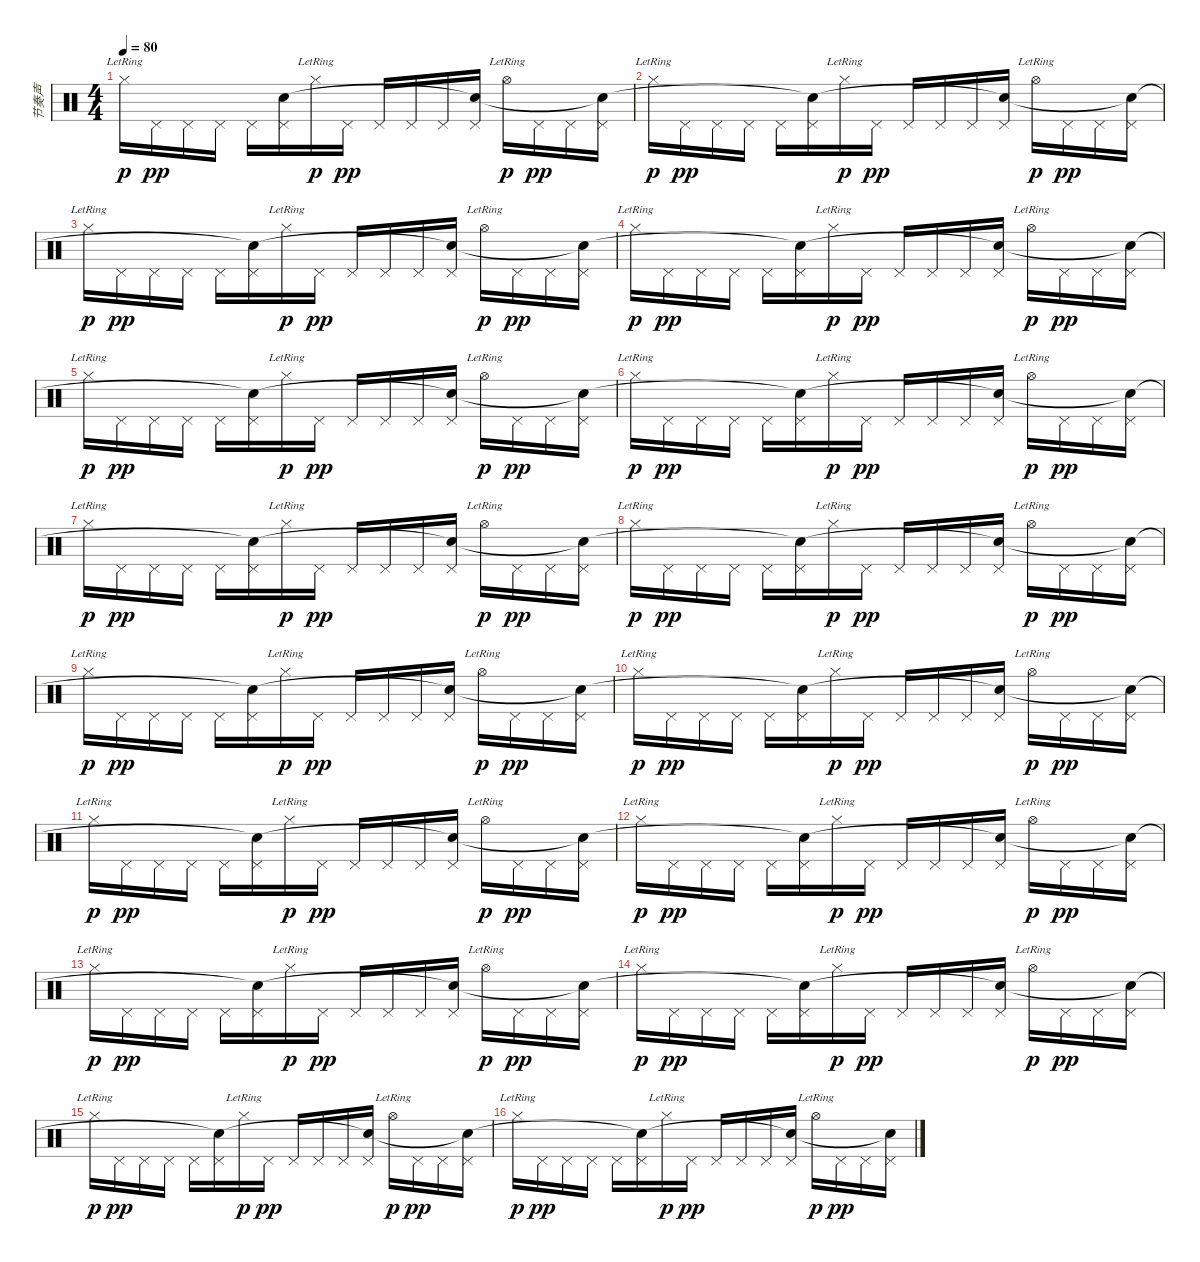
\track ("节奏声" "节奏声") {instrument percussion}
\staff {score}
\articulation defaults
\ts (4 4)
\tempo 80
\clef neutral
\ks c "Hi-Hat (closed)"{lr}.16{dy p} "Pedal Hi-Hat (hit)".16{dy pp} "Pedal Hi-Hat (hit)".16 "Pedal Hi-Hat (hit)".16 "Pedal Hi-Hat (hit)".16
("Pedal Hi-Hat (hit)" "Snare (hit)"{t}).16 "Hi-Hat (closed)"{lr}.16{dy p} "Pedal Hi-Hat (hit)".16{dy pp} "Pedal Hi-Hat (hit)".16 "Pedal Hi-Hat (hit)".16 "Pedal Hi-Hat (hit)".16 ("Pedal Hi-Hat (hit)" "Snare (hit)"{t}).16 "Hi-Hat (open)"{lr}.16{dy p} "Pedal Hi-Hat (hit)".16{dy pp} "Pedal Hi-Hat (hit)".16 ("Pedal Hi-Hat (hit)" "Snare (hit)"{t}).16 |
"Hi-Hat (closed)"{lr}.16{dy p} "Pedal Hi-Hat (hit)".16{dy pp} "Pedal Hi-Hat (hit)".16 "Pedal Hi-Hat (hit)".16 "Pedal Hi-Hat (hit)".16 ("Pedal Hi-Hat (hit)" "Snare (hit)"{t}).16 "Hi-Hat (closed)"{lr}.16{dy p} "Pedal Hi-Hat (hit)".16{dy pp} "Pedal Hi-Hat (hit)".16 "Pedal Hi-Hat (hit)".16 "Pedal Hi-Hat (hit)".16 ("Pedal Hi-Hat (hit)" "Snare (hit)"{t}).16 "Hi-Hat (open)"{lr}.16{dy p} "Pedal Hi-Hat (hit)".16{dy pp} "Pedal Hi-Hat (hit)".16 ("Pedal Hi-Hat (hit)" "Snare (hit)"{t}).16 |
"Hi-Hat (closed)"{lr}.16{dy p} "Pedal Hi-Hat (hit)".16{dy pp} "Pedal Hi-Hat (hit)".16 "Pedal Hi-Hat (hit)".16 "Pedal Hi-Hat (hit)".16 ("Pedal Hi-Hat (hit)" "Snare (hit)"{t}).16 "Hi-Hat (closed)"{lr}.16{dy p} "Pedal Hi-Hat (hit)".16{dy pp} "Pedal Hi-Hat (hit)".16 "Pedal Hi-Hat (hit)".16 "Pedal Hi-Hat (hit)".16 ("Pedal Hi-Hat (hit)" "Snare (hit)"{t}).16 "Hi-Hat (open)"{lr}.16{dy p} "Pedal Hi-Hat (hit)".16{dy pp} "Pedal Hi-Hat (hit)".16 ("Pedal Hi-Hat (hit)" "Snare (hit)"{t}).16 |
"Hi-Hat (closed)"{lr}.16{dy p} "Pedal Hi-Hat (hit)".16{dy pp} "Pedal Hi-Hat (hit)".16 "Pedal Hi-Hat (hit)".16 "Pedal Hi-Hat (hit)".16 ("Pedal Hi-Hat (hit)" "Snare (hit)"{t}).16 "Hi-Hat (closed)"{lr}.16{dy p} "Pedal Hi-Hat (hit)".16{dy pp} "Pedal Hi-Hat (hit)".16 "Pedal Hi-Hat (hit)".16 "Pedal Hi-Hat (hit)".16 ("Pedal Hi-Hat (hit)" "Snare (hit)"{t}).16 "Hi-Hat (open)"{lr}.16{dy p} "Pedal Hi-Hat (hit)".16{dy pp} "Pedal Hi-Hat (hit)".16 ("Pedal Hi-Hat (hit)" "Snare (hit)"{t}).16 |
"Hi-Hat (closed)"{lr}.16{dy p} "Pedal Hi-Hat (hit)".16{dy pp} "Pedal Hi-Hat (hit)".16 "Pedal Hi-Hat (hit)".16 "Pedal Hi-Hat (hit)".16 ("Pedal Hi-Hat (hit)" "Snare (hit)"{t}).16 "Hi-Hat (closed)"{lr}.16{dy p} "Pedal Hi-Hat (hit)".16{dy pp} "Pedal Hi-Hat (hit)".16 "Pedal Hi-Hat (hit)".16 "Pedal Hi-Hat (hit)".16 ("Pedal Hi-Hat (hit)" "Snare (hit)"{t}).16 "Hi-Hat (open)"{lr}.16{dy p} "Pedal Hi-Hat (hit)".16{dy pp} "Pedal Hi-Hat (hit)".16 ("Pedal Hi-Hat (hit)" "Snare (hit)"{t}).16 |
"Hi-Hat (closed)"{lr}.16{dy p} "Pedal Hi-Hat (hit)".16{dy pp} "Pedal Hi-Hat (hit)".16 "Pedal Hi-Hat (hit)".16 "Pedal Hi-Hat (hit)".16 ("Pedal Hi-Hat (hit)" "Snare (hit)"{t}).16 "Hi-Hat (closed)"{lr}.16{dy p} "Pedal Hi-Hat (hit)".16{dy pp} "Pedal Hi-Hat (hit)".16 "Pedal Hi-Hat (hit)".16 "Pedal Hi-Hat (hit)".16 ("Pedal Hi-Hat (hit)" "Snare (hit)"{t}).16 "Hi-Hat (open)"{lr}.16{dy p} "Pedal Hi-Hat (hit)".16{dy pp} "Pedal Hi-Hat (hit)".16 ("Pedal Hi-Hat (hit)" "Snare (hit)"{t}).16 |
"Hi-Hat (closed)"{lr}.16{dy p} "Pedal Hi-Hat (hit)".16{dy pp} "Pedal Hi-Hat (hit)".16 "Pedal Hi-Hat (hit)".16 "Pedal Hi-Hat (hit)".16 ("Pedal Hi-Hat (hit)" "Snare (hit)"{t}).16 "Hi-Hat (closed)"{lr}.16{dy p} "Pedal Hi-Hat (hit)".16{dy pp} "Pedal Hi-Hat (hit)".16 "Pedal Hi-Hat (hit)".16 "Pedal Hi-Hat (hit)".16 ("Pedal Hi-Hat (hit)" "Snare (hit)"{t}).16 "Hi-Hat (open)"{lr}.16{dy p} "Pedal Hi-Hat (hit)".16{dy pp} "Pedal Hi-Hat (hit)".16 ("Pedal Hi-Hat (hit)" "Snare (hit)"{t}).16 |
"Hi-Hat (closed)"{lr}.16{dy p} "Pedal Hi-Hat (hit)".16{dy pp} "Pedal Hi-Hat (hit)".16 "Pedal Hi-Hat (hit)".16 "Pedal Hi-Hat (hit)".16 ("Pedal Hi-Hat (hit)" "Snare (hit)"{t}).16 "Hi-Hat (closed)"{lr}.16{dy p} "Pedal Hi-Hat (hit)".16{dy pp} "Pedal Hi-Hat (hit)".16 "Pedal Hi-Hat (hit)".16 "Pedal Hi-Hat (hit)".16 ("Pedal Hi-Hat (hit)" "Snare (hit)"{t}).16 "Hi-Hat (open)"{lr}.16{dy p} "Pedal Hi-Hat (hit)".16{dy pp} "Pedal Hi-Hat (hit)".16 ("Pedal Hi-Hat (hit)" "Snare (hit)"{t}).16 |
"Hi-Hat (closed)"{lr}.16{dy p} "Pedal Hi-Hat (hit)".16{dy pp} "Pedal Hi-Hat (hit)".16 "Pedal Hi-Hat (hit)".16 "Pedal Hi-Hat (hit)".16 ("Pedal Hi-Hat (hit)" "Snare (hit)"{t}).16 "Hi-Hat (closed)"{lr}.16{dy p} "Pedal Hi-Hat (hit)".16{dy pp} "Pedal Hi-Hat (hit)".16 "Pedal Hi-Hat (hit)".16 "Pedal Hi-Hat (hit)".16 ("Pedal Hi-Hat (hit)" "Snare (hit)"{t}).16 "Hi-Hat (open)"{lr}.16{dy p} "Pedal Hi-Hat (hit)".16{dy pp} "Pedal Hi-Hat (hit)".16 ("Pedal Hi-Hat (hit)" "Snare (hit)"{t}).16 |
"Hi-Hat (closed)"{lr}.16{dy p} "Pedal Hi-Hat (hit)".16{dy pp} "Pedal Hi-Hat (hit)".16 "Pedal Hi-Hat (hit)".16 "Pedal Hi-Hat (hit)".16 ("Pedal Hi-Hat (hit)" "Snare (hit)"{t}).16 "Hi-Hat (closed)"{lr}.16{dy p} "Pedal Hi-Hat (hit)".16{dy pp} "Pedal Hi-Hat (hit)".16 "Pedal Hi-Hat (hit)".16 "Pedal Hi-Hat (hit)".16 ("Pedal Hi-Hat (hit)" "Snare (hit)"{t}).16 "Hi-Hat (open)"{lr}.16{dy p} "Pedal Hi-Hat (hit)".16{dy pp} "Pedal Hi-Hat (hit)".16 ("Pedal Hi-Hat (hit)" "Snare (hit)"{t}).16 |
"Hi-Hat (closed)"{lr}.16{dy p} "Pedal Hi-Hat (hit)".16{dy pp} "Pedal Hi-Hat (hit)".16 "Pedal Hi-Hat (hit)".16 "Pedal Hi-Hat (hit)".16 ("Pedal Hi-Hat (hit)" "Snare (hit)"{t}).16 "Hi-Hat (closed)"{lr}.16{dy p} "Pedal Hi-Hat (hit)".16{dy pp} "Pedal Hi-Hat (hit)".16 "Pedal Hi-Hat (hit)".16 "Pedal Hi-Hat (hit)".16 ("Pedal Hi-Hat (hit)" "Snare (hit)"{t}).16 "Hi-Hat (open)"{lr}.16{dy p} "Pedal Hi-Hat (hit)".16{dy pp} "Pedal Hi-Hat (hit)".16 ("Pedal Hi-Hat (hit)" "Snare (hit)"{t}).16 |
"Hi-Hat (closed)"{lr}.16{dy p} "Pedal Hi-Hat (hit)".16{dy pp} "Pedal Hi-Hat (hit)".16 "Pedal Hi-Hat (hit)".16 "Pedal Hi-Hat (hit)".16 ("Pedal Hi-Hat (hit)" "Snare (hit)"{t}).16 "Hi-Hat (closed)"{lr}.16{dy p} "Pedal Hi-Hat (hit)".16{dy pp} "Pedal Hi-Hat (hit)".16 "Pedal Hi-Hat (hit)".16 "Pedal Hi-Hat (hit)".16 ("Pedal Hi-Hat (hit)" "Snare (hit)"{t}).16 "Hi-Hat (open)"{lr}.16{dy p} "Pedal Hi-Hat (hit)".16{dy pp} "Pedal Hi-Hat (hit)".16 ("Pedal Hi-Hat (hit)" "Snare (hit)"{t}).16 |
"Hi-Hat (closed)"{lr}.16{dy p} "Pedal Hi-Hat (hit)".16{dy pp} "Pedal Hi-Hat (hit)".16 "Pedal Hi-Hat (hit)".16 "Pedal Hi-Hat (hit)".16 ("Pedal Hi-Hat (hit)" "Snare (hit)"{t}).16 "Hi-Hat (closed)"{lr}.16{dy p} "Pedal Hi-Hat (hit)".16{dy pp} "Pedal Hi-Hat (hit)".16 "Pedal Hi-Hat (hit)".16 "Pedal Hi-Hat (hit)".16 ("Pedal Hi-Hat (hit)" "Snare (hit)"{t}).16 "Hi-Hat (open)"{lr}.16{dy p} "Pedal Hi-Hat (hit)".16{dy pp} "Pedal Hi-Hat (hit)".16 ("Pedal Hi-Hat (hit)" "Snare (hit)"{t}).16 |
"Hi-Hat (closed)"{lr}.16{dy p} "Pedal Hi-Hat (hit)".16{dy pp} "Pedal Hi-Hat (hit)".16 "Pedal Hi-Hat (hit)".16 "Pedal Hi-Hat (hit)".16 ("Pedal Hi-Hat (hit)" "Snare (hit)"{t}).16 "Hi-Hat (closed)"{lr}.16{dy p} "Pedal Hi-Hat (hit)".16{dy pp} "Pedal Hi-Hat (hit)".16 "Pedal Hi-Hat (hit)".16 "Pedal Hi-Hat (hit)".16 ("Pedal Hi-Hat (hit)" "Snare (hit)"{t}).16 "Hi-Hat (open)"{lr}.16{dy p} "Pedal Hi-Hat (hit)".16{dy pp} "Pedal Hi-Hat (hit)".16 ("Pedal Hi-Hat (hit)" "Snare (hit)"{t}).16 |
"Hi-Hat (closed)"{lr}.16{dy p} "Pedal Hi-Hat (hit)".16{dy pp} "Pedal Hi-Hat (hit)".16 "Pedal Hi-Hat (hit)".16 "Pedal Hi-Hat (hit)".16 ("Pedal Hi-Hat (hit)" "Snare (hit)"{t}).16 "Hi-Hat (closed)"{lr}.16{dy p} "Pedal Hi-Hat (hit)".16{dy pp} "Pedal Hi-Hat (hit)".16 "Pedal Hi-Hat (hit)".16 "Pedal Hi-Hat (hit)".16 ("Pedal Hi-Hat (hit)" "Snare (hit)"{t}).16 "Hi-Hat (open)"{lr}.16{dy p} "Pedal Hi-Hat (hit)".16{dy pp} "Pedal Hi-Hat (hit)".16 ("Pedal Hi-Hat (hit)" "Snare (hit)"{t}).16 |
"Hi-Hat (closed)"{lr}.16{dy p} "Pedal Hi-Hat (hit)".16{dy pp} "Pedal Hi-Hat (hit)".16 "Pedal Hi-Hat (hit)".16 "Pedal Hi-Hat (hit)".16 ("Pedal Hi-Hat (hit)" "Snare (hit)"{t}).16 "Hi-Hat (closed)"{lr}.16{dy p} "Pedal Hi-Hat (hit)".16{dy pp} "Pedal Hi-Hat (hit)".16 "Pedal Hi-Hat (hit)".16 "Pedal Hi-Hat (hit)".16 ("Pedal Hi-Hat (hit)" "Snare (hit)"{t}).16 "Hi-Hat (open)"{lr}.16{dy p} "Pedal Hi-Hat (hit)".16{dy pp} "Pedal Hi-Hat (hit)".16 ("Pedal Hi-Hat (hit)" "Snare (hit)"{t}).16
